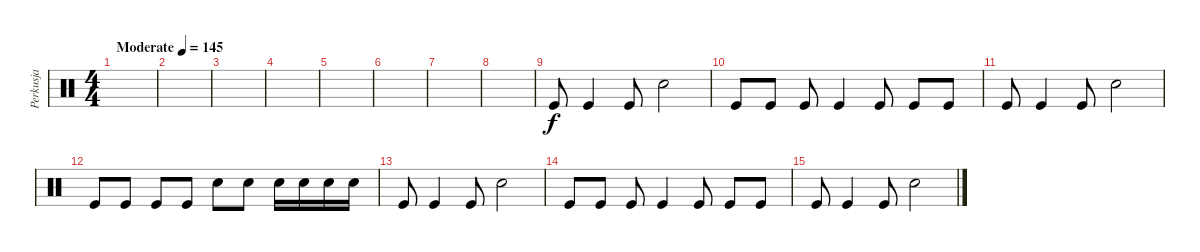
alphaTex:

\track ("Perkusja" "Perkusja") {instrument percussion}
\staff {score}
\articulation defaults
\ts (4 4)
\tempo (145 "Moderate")
\clef neutral
\ks c
|
|
|
|
|
|
|
|
"Kick (hit)".8 "Kick (hit)".4 "Kick (hit)".8 "Snare (hit) 2".2 |
"Kick (hit)".8 "Kick (hit)".8 "Kick (hit)".8 "Kick (hit)".4 "Kick (hit)".8 "Kick (hit)".8 "Kick (hit)".8 |
"Kick (hit)".8 "Kick (hit)".4 "Kick (hit)".8 "Snare (hit) 2".2 |
"Kick (hit)".8 "Kick (hit)".8 "Kick (hit)".8 "Kick (hit)".8 "Snare (hit) 2".8 "Snare (hit) 2".8 "Snare (hit) 2".16 "Snare (hit) 2".16 "Snare (hit) 2".16 "Snare (hit) 2".16 |
"Kick (hit)".8 "Kick (hit)".4 "Kick (hit)".8 "Snare (hit) 2".2 |
"Kick (hit)".8 "Kick (hit)".8 "Kick (hit)".8 "Kick (hit)".4 "Kick (hit)".8 "Kick (hit)".8 "Kick (hit)".8 |
"Kick (hit)".8 "Kick (hit)".4 "Kick (hit)".8 "Snare (hit) 2".2
